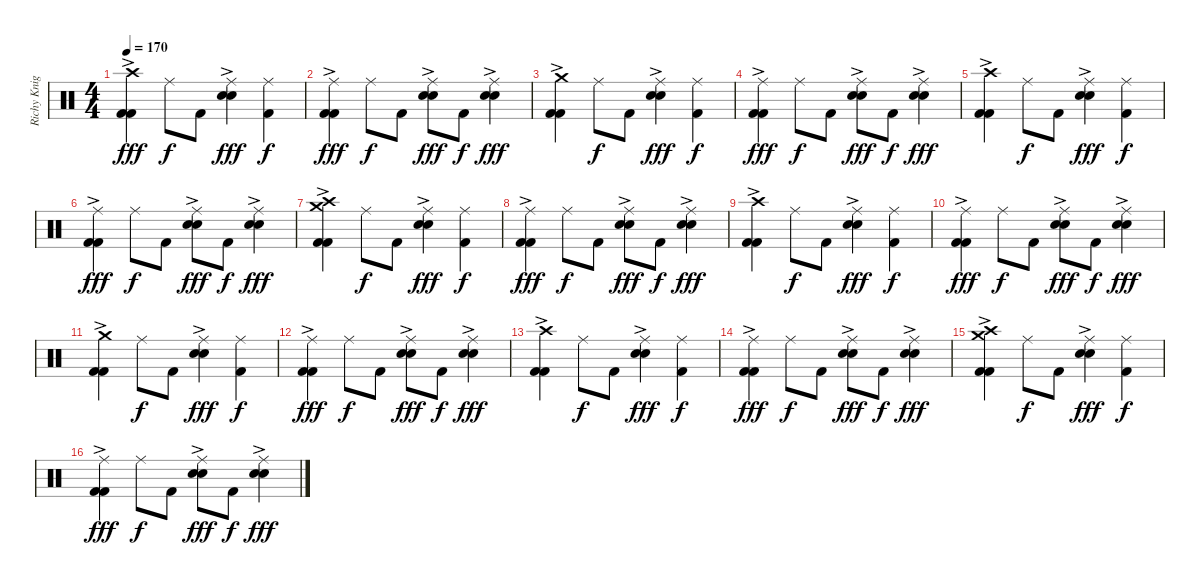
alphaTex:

\track ("Richy Knight (Drums)" "Richy Knig") {instrument percussion}
\staff {score}
\articulation defaults
\ts (4 4)
\tempo 170
\clef neutral
\ks c
("Crash high (hit)"{ac} "Kick (hit) 2"{ac} "Kick (hit) 2"{ac}).4{dy fff} "Ride (middle)".8{dy f} "Kick (hit) 2".8 ("Ride (middle)"{ac} "Electric Snare (hit)"{ac} "Electric Snare (hit)"{ac}).4{dy fff} ("Ride (middle)" "Kick (hit) 2").4{dy f} |
("Ride (middle)"{ac} "Kick (hit) 2"{ac} "Kick (hit) 2"{ac}).4{dy fff} "Ride (middle)".8{dy f} "Kick (hit) 2".8 ("Ride (middle)"{ac} "Electric Snare (hit)"{ac} "Electric Snare (hit)"{ac}).8{dy fff} "Kick (hit) 2".8{dy f} ("Ride (middle)"{ac} "Electric Snare (hit)"{ac} "Electric Snare (hit)"{ac}).4{dy fff} |
("Crash medium (hit)"{ac} "Kick (hit) 2"{ac} "Kick (hit) 2"{ac}).4 "Ride (middle)".8{dy f} "Kick (hit) 2".8 ("Ride (middle)"{ac} "Electric Snare (hit)"{ac} "Electric Snare (hit)"{ac}).4{dy fff} ("Ride (middle)" "Kick (hit) 2").4{dy f} |
("Ride (middle)"{ac} "Kick (hit) 2"{ac} "Kick (hit) 2"{ac}).4{dy fff} "Ride (middle)".8{dy f} "Kick (hit) 2".8 ("Ride (middle)"{ac} "Electric Snare (hit)"{ac} "Electric Snare (hit)"{ac}).8{dy fff} "Kick (hit) 2".8{dy f} ("Ride (middle)"{ac} "Electric Snare (hit)"{ac} "Electric Snare (hit)"{ac}).4{dy fff} |
("Crash high (hit)"{ac} "Kick (hit) 2"{ac} "Kick (hit) 2"{ac}).4 "Ride (middle)".8{dy f} "Kick (hit) 2".8 ("Ride (middle)"{ac} "Electric Snare (hit)"{ac} "Electric Snare (hit)"{ac}).4{dy fff} ("Ride (middle)" "Kick (hit) 2").4{dy f} |
("Ride (middle)"{ac} "Kick (hit) 2"{ac} "Kick (hit) 2"{ac}).4{dy fff} "Ride (middle)".8{dy f} "Kick (hit) 2".8 ("Ride (middle)"{ac} "Electric Snare (hit)"{ac} "Electric Snare (hit)"{ac}).8{dy fff} "Kick (hit) 2".8{dy f} ("Ride (middle)"{ac} "Electric Snare (hit)"{ac} "Electric Snare (hit)"{ac}).4{dy fff} |
("Crash high (hit)"{ac} "Crash medium (hit)" "Kick (hit) 2"{ac} "Kick (hit) 2"{ac}).4 "Ride (middle)".8{dy f} "Kick (hit) 2".8 ("Ride (middle)"{ac} "Electric Snare (hit)"{ac} "Electric Snare (hit)"{ac}).4{dy fff} ("Ride (middle)" "Kick (hit) 2").4{dy f} |
("Ride (middle)"{ac} "Kick (hit) 2"{ac} "Kick (hit) 2"{ac}).4{dy fff} "Ride (middle)".8{dy f} "Kick (hit) 2".8 ("Ride (middle)"{ac} "Electric Snare (hit)"{ac} "Electric Snare (hit)"{ac}).8{dy fff} "Kick (hit) 2".8{dy f} ("Ride (middle)"{ac} "Electric Snare (hit)"{ac} "Electric Snare (hit)"{ac}).4{dy fff} |
("Crash high (hit)"{ac} "Kick (hit) 2"{ac} "Kick (hit) 2"{ac}).4 "Ride (middle)".8{dy f} "Kick (hit) 2".8 ("Ride (middle)"{ac} "Electric Snare (hit)"{ac} "Electric Snare (hit)"{ac}).4{dy fff} ("Ride (middle)" "Kick (hit) 2").4{dy f} |
("Ride (middle)"{ac} "Kick (hit) 2"{ac} "Kick (hit) 2"{ac}).4{dy fff} "Ride (middle)".8{dy f} "Kick (hit) 2".8 ("Ride (middle)"{ac} "Electric Snare (hit)"{ac} "Electric Snare (hit)"{ac}).8{dy fff} "Kick (hit) 2".8{dy f} ("Ride (middle)"{ac} "Electric Snare (hit)"{ac} "Electric Snare (hit)"{ac}).4{dy fff} |
("Crash medium (hit)"{ac} "Kick (hit) 2"{ac} "Kick (hit) 2"{ac}).4 "Ride (middle)".8{dy f} "Kick (hit) 2".8 ("Ride (middle)"{ac} "Electric Snare (hit)"{ac} "Electric Snare (hit)"{ac}).4{dy fff} ("Ride (middle)" "Kick (hit) 2").4{dy f} |
("Ride (middle)"{ac} "Kick (hit) 2"{ac} "Kick (hit) 2"{ac}).4{dy fff} "Ride (middle)".8{dy f} "Kick (hit) 2".8 ("Ride (middle)"{ac} "Electric Snare (hit)"{ac} "Electric Snare (hit)"{ac}).8{dy fff} "Kick (hit) 2".8{dy f} ("Ride (middle)"{ac} "Electric Snare (hit)"{ac} "Electric Snare (hit)"{ac}).4{dy fff} |
("Crash high (hit)"{ac} "Kick (hit) 2"{ac} "Kick (hit) 2"{ac}).4 "Ride (middle)".8{dy f} "Kick (hit) 2".8 ("Ride (middle)"{ac} "Electric Snare (hit)"{ac} "Electric Snare (hit)"{ac}).4{dy fff} ("Ride (middle)" "Kick (hit) 2").4{dy f} |
("Ride (middle)"{ac} "Kick (hit) 2"{ac} "Kick (hit) 2"{ac}).4{dy fff} "Ride (middle)".8{dy f} "Kick (hit) 2".8 ("Ride (middle)"{ac} "Electric Snare (hit)"{ac} "Electric Snare (hit)"{ac}).8{dy fff} "Kick (hit) 2".8{dy f} ("Ride (middle)"{ac} "Electric Snare (hit)"{ac} "Electric Snare (hit)"{ac}).4{dy fff} |
("Crash high (hit)"{ac} "Crash medium (hit)" "Kick (hit) 2"{ac} "Kick (hit) 2"{ac}).4 "Ride (middle)".8{dy f} "Kick (hit) 2".8 ("Ride (middle)"{ac} "Electric Snare (hit)"{ac} "Electric Snare (hit)"{ac}).4{dy fff} ("Ride (middle)" "Kick (hit) 2").4{dy f} |
("Ride (middle)"{ac} "Kick (hit) 2"{ac} "Kick (hit) 2"{ac}).4{dy fff} "Ride (middle)".8{dy f} "Kick (hit) 2".8 ("Ride (middle)"{ac} "Electric Snare (hit)"{ac} "Electric Snare (hit)"{ac}).8{dy fff} "Kick (hit) 2".8{dy f} ("Ride (middle)"{ac} "Electric Snare (hit)"{ac} "Electric Snare (hit)"{ac}).4{dy fff}
